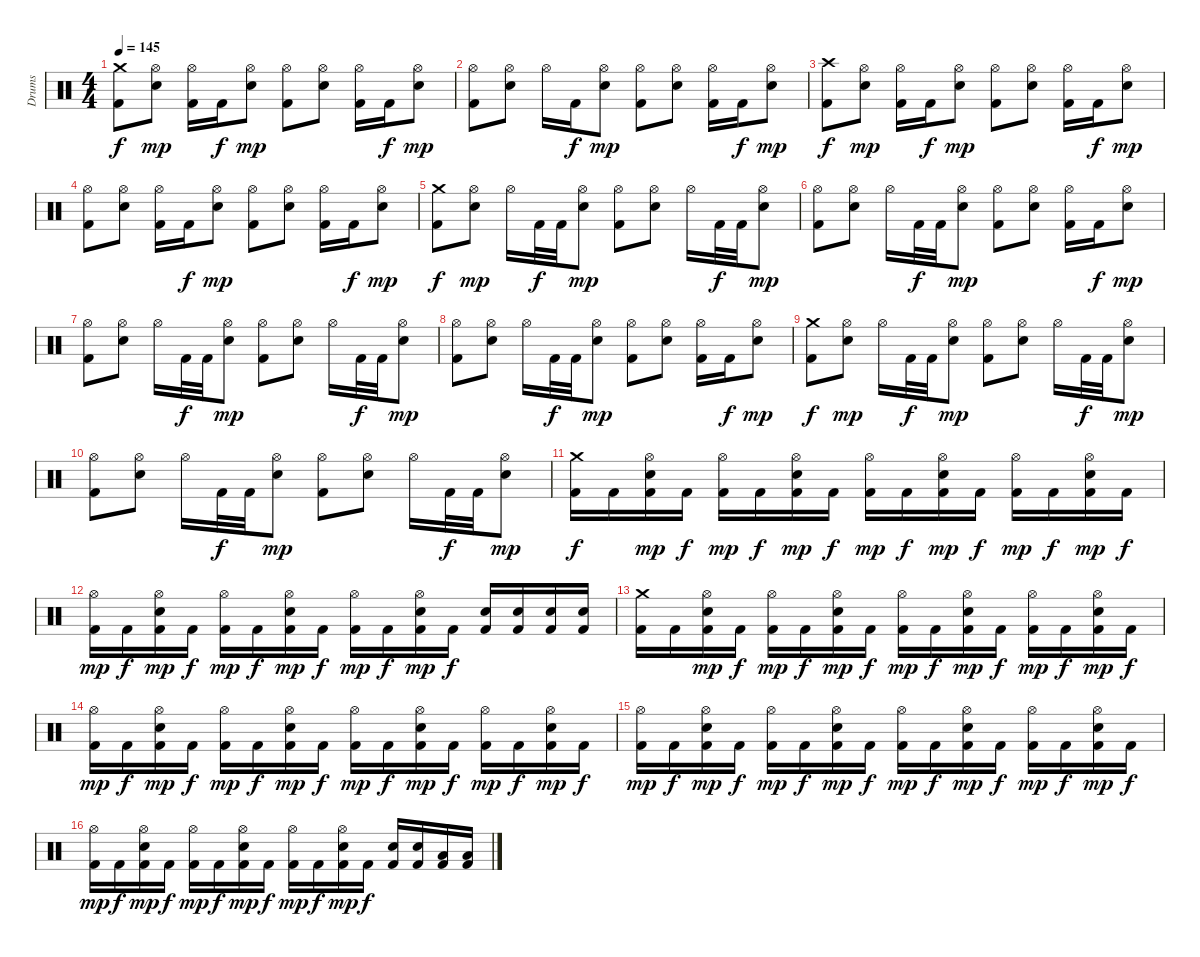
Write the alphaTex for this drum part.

\track ("Drums" "Drums") {instrument percussion}
\staff {score}
\articulation defaults
\ts (4 4)
\tempo 145
\clef neutral
\ks c
("Crash medium (hit)" "Kick (hit) 2").8{dy f} ("Hi-Hat (open)" "Electric Snare (hit)").8{dy mp} ("Hi-Hat (open)" "Kick (hit) 2").16 "Kick (hit) 2".16{dy f} ("Hi-Hat (open)" "Electric Snare (hit)").8{dy mp} ("Hi-Hat (open)" "Kick (hit) 2").8 ("Hi-Hat (open)" "Electric Snare (hit)").8 ("Hi-Hat (open)" "Kick (hit) 2").16 "Kick (hit) 2".16{dy f} ("Hi-Hat (open)" "Electric Snare (hit)").8{dy mp} |
("Hi-Hat (open)" "Kick (hit) 2").8 ("Hi-Hat (open)" "Electric Snare (hit)").8 "Hi-Hat (open)".16 "Kick (hit) 2".16{dy f} ("Hi-Hat (open)" "Electric Snare (hit)").8{dy mp} ("Hi-Hat (open)" "Kick (hit) 2").8 ("Hi-Hat (open)" "Electric Snare (hit)").8 ("Hi-Hat (open)" "Kick (hit) 2").16 "Kick (hit) 2".16{dy f} ("Hi-Hat (open)" "Electric Snare (hit)").8{dy mp} |
("Crash high (hit)" "Kick (hit) 2").8{dy f} ("Hi-Hat (open)" "Electric Snare (hit)").8{dy mp} ("Hi-Hat (open)" "Kick (hit) 2").16 "Kick (hit) 2".16{dy f} ("Hi-Hat (open)" "Electric Snare (hit)").8{dy mp} ("Hi-Hat (open)" "Kick (hit) 2").8 ("Hi-Hat (open)" "Electric Snare (hit)").8 ("Hi-Hat (open)" "Kick (hit) 2").16 "Kick (hit) 2".16{dy f} ("Hi-Hat (open)" "Electric Snare (hit)").8{dy mp} |
("Hi-Hat (open)" "Kick (hit) 2").8 ("Hi-Hat (open)" "Electric Snare (hit)").8 ("Hi-Hat (open)" "Kick (hit) 2").16 "Kick (hit) 2".16{dy f} ("Hi-Hat (open)" "Electric Snare (hit)").8{dy mp} ("Hi-Hat (open)" "Kick (hit) 2").8 ("Hi-Hat (open)" "Electric Snare (hit)").8 ("Hi-Hat (open)" "Kick (hit) 2").16 "Kick (hit) 2".16{dy f} ("Hi-Hat (open)" "Electric Snare (hit)").8{dy mp} |
("Crash medium (hit)" "Kick (hit) 2").8{dy f} ("Hi-Hat (open)" "Electric Snare (hit)").8{dy mp} "Hi-Hat (open)".16 "Kick (hit) 2".32{dy f} "Kick (hit) 2".32 ("Hi-Hat (open)" "Electric Snare (hit)").8{dy mp} ("Hi-Hat (open)" "Kick (hit) 2").8 ("Hi-Hat (open)" "Electric Snare (hit)").8 "Hi-Hat (open)".16 "Kick (hit) 2".32{dy f} "Kick (hit) 2".32 ("Hi-Hat (open)" "Electric Snare (hit)").8{dy mp} |
("Hi-Hat (open)" "Kick (hit) 2").8 ("Hi-Hat (open)" "Electric Snare (hit)").8 "Hi-Hat (open)".16 "Kick (hit) 2".32{dy f} "Kick (hit) 2".32 ("Hi-Hat (open)" "Electric Snare (hit)").8{dy mp} ("Hi-Hat (open)" "Kick (hit) 2").8 ("Hi-Hat (open)" "Electric Snare (hit)").8 ("Hi-Hat (open)" "Kick (hit) 2").16 "Kick (hit) 2".16{dy f} ("Hi-Hat (open)" "Electric Snare (hit)").8{dy mp} |
("Hi-Hat (open)" "Kick (hit) 2").8 ("Hi-Hat (open)" "Electric Snare (hit)").8 "Hi-Hat (open)".16 "Kick (hit) 2".32{dy f} "Kick (hit) 2".32 ("Hi-Hat (open)" "Electric Snare (hit)").8{dy mp} ("Hi-Hat (open)" "Kick (hit) 2").8 ("Hi-Hat (open)" "Electric Snare (hit)").8 "Hi-Hat (open)".16 "Kick (hit) 2".32{dy f} "Kick (hit) 2".32 ("Hi-Hat (open)" "Electric Snare (hit)").8{dy mp} |
("Hi-Hat (open)" "Kick (hit) 2").8 ("Hi-Hat (open)" "Electric Snare (hit)").8 "Hi-Hat (open)".16 "Kick (hit) 2".32{dy f} "Kick (hit) 2".32 ("Hi-Hat (open)" "Electric Snare (hit)").8{dy mp} ("Hi-Hat (open)" "Kick (hit) 2").8 ("Hi-Hat (open)" "Electric Snare (hit)").8 ("Hi-Hat (open)" "Kick (hit) 2").16 "Kick (hit) 2".16{dy f} ("Hi-Hat (open)" "Electric Snare (hit)").8{dy mp} |
("Crash medium (hit)" "Kick (hit) 2").8{dy f} ("Hi-Hat (open)" "Electric Snare (hit)").8{dy mp} "Hi-Hat (open)".16 "Kick (hit) 2".32{dy f} "Kick (hit) 2".32 ("Hi-Hat (open)" "Electric Snare (hit)").8{dy mp} ("Hi-Hat (open)" "Kick (hit) 2").8 ("Hi-Hat (open)" "Electric Snare (hit)").8 "Hi-Hat (open)".16 "Kick (hit) 2".32{dy f} "Kick (hit) 2".32 ("Hi-Hat (open)" "Electric Snare (hit)").8{dy mp} |
("Hi-Hat (open)" "Kick (hit) 2").8 ("Hi-Hat (open)" "Electric Snare (hit)").8 "Hi-Hat (open)".16 "Kick (hit) 2".32{dy f} "Kick (hit) 2".32 ("Hi-Hat (open)" "Electric Snare (hit)").8{dy mp} ("Hi-Hat (open)" "Kick (hit) 2").8 ("Hi-Hat (open)" "Electric Snare (hit)").8 "Hi-Hat (open)".16 "Kick (hit) 2".32{dy f} "Kick (hit) 2".32 ("Hi-Hat (open)" "Electric Snare (hit)").8{dy mp} |
("Crash medium (hit)" "Kick (hit) 2").16{dy f} "Kick (hit) 2".16 ("Hi-Hat (open)" "Kick (hit) 2" "Electric Snare (hit)").16{dy mp} "Kick (hit) 2".16{dy f} ("Hi-Hat (open)" "Kick (hit) 2").16{dy mp} "Kick (hit) 2".16{dy f} ("Hi-Hat (open)" "Kick (hit) 2" "Electric Snare (hit)").16{dy mp} "Kick (hit) 2".16{dy f} ("Hi-Hat (open)" "Kick (hit) 2").16{dy mp} "Kick (hit) 2".16{dy f} ("Hi-Hat (open)" "Kick (hit) 2" "Electric Snare (hit)").16{dy mp} "Kick (hit) 2".16{dy f} ("Hi-Hat (open)" "Kick (hit) 2").16{dy mp} "Kick (hit) 2".16{dy f} ("Hi-Hat (open)" "Kick (hit) 2" "Electric Snare (hit)").16{dy mp} "Kick (hit) 2".16{dy f} |
("Hi-Hat (open)" "Kick (hit) 2").16{dy mp} "Kick (hit) 2".16{dy f} ("Hi-Hat (open)" "Kick (hit) 2" "Electric Snare (hit)").16{dy mp} "Kick (hit) 2".16{dy f} ("Hi-Hat (open)" "Kick (hit) 2").16{dy mp} "Kick (hit) 2".16{dy f} ("Hi-Hat (open)" "Kick (hit) 2" "Electric Snare (hit)").16{dy mp} "Kick (hit) 2".16{dy f} ("Hi-Hat (open)" "Kick (hit) 2").16{dy mp} "Kick (hit) 2".16{dy f} ("Hi-Hat (open)" "Kick (hit) 2" "Electric Snare (hit)").16{dy mp} "Kick (hit) 2".16{dy f} ("Kick (hit) 2" "Electric Snare (hit)").16 ("Kick (hit) 2" "Electric Snare (hit)").16 ("Kick (hit) 2" "Electric Snare (hit)").16 ("Kick (hit) 2" "Electric Snare (hit)").16 |
("Crash medium (hit)" "Kick (hit) 2").16 "Kick (hit) 2".16 ("Hi-Hat (open)" "Kick (hit) 2" "Electric Snare (hit)").16{dy mp} "Kick (hit) 2".16{dy f} ("Hi-Hat (open)" "Kick (hit) 2").16{dy mp} "Kick (hit) 2".16{dy f} ("Hi-Hat (open)" "Kick (hit) 2" "Electric Snare (hit)").16{dy mp} "Kick (hit) 2".16{dy f} ("Hi-Hat (open)" "Kick (hit) 2").16{dy mp} "Kick (hit) 2".16{dy f} ("Hi-Hat (open)" "Kick (hit) 2" "Electric Snare (hit)").16{dy mp} "Kick (hit) 2".16{dy f} ("Hi-Hat (open)" "Kick (hit) 2").16{dy mp} "Kick (hit) 2".16{dy f} ("Hi-Hat (open)" "Kick (hit) 2" "Electric Snare (hit)").16{dy mp} "Kick (hit) 2".16{dy f} |
("Hi-Hat (open)" "Kick (hit) 2").16{dy mp} "Kick (hit) 2".16{dy f} ("Hi-Hat (open)" "Kick (hit) 2" "Electric Snare (hit)").16{dy mp} "Kick (hit) 2".16{dy f} ("Hi-Hat (open)" "Kick (hit) 2").16{dy mp} "Kick (hit) 2".16{dy f} ("Hi-Hat (open)" "Kick (hit) 2" "Electric Snare (hit)").16{dy mp} "Kick (hit) 2".16{dy f} ("Hi-Hat (open)" "Kick (hit) 2").16{dy mp} "Kick (hit) 2".16{dy f} ("Hi-Hat (open)" "Kick (hit) 2" "Electric Snare (hit)").16{dy mp} "Kick (hit) 2".16{dy f} ("Hi-Hat (open)" "Kick (hit) 2").16{dy mp} "Kick (hit) 2".16{dy f} ("Hi-Hat (open)" "Kick (hit) 2" "Electric Snare (hit)").16{dy mp} "Kick (hit) 2".16{dy f} |
("Hi-Hat (open)" "Kick (hit) 2").16{dy mp} "Kick (hit) 2".16{dy f} ("Hi-Hat (open)" "Kick (hit) 2" "Electric Snare (hit)").16{dy mp} "Kick (hit) 2".16{dy f} ("Hi-Hat (open)" "Kick (hit) 2").16{dy mp} "Kick (hit) 2".16{dy f} ("Hi-Hat (open)" "Kick (hit) 2" "Electric Snare (hit)").16{dy mp} "Kick (hit) 2".16{dy f} ("Hi-Hat (open)" "Kick (hit) 2").16{dy mp} "Kick (hit) 2".16{dy f} ("Hi-Hat (open)" "Kick (hit) 2" "Electric Snare (hit)").16{dy mp} "Kick (hit) 2".16{dy f} ("Hi-Hat (open)" "Kick (hit) 2").16{dy mp} "Kick (hit) 2".16{dy f} ("Hi-Hat (open)" "Kick (hit) 2" "Electric Snare (hit)").16{dy mp} "Kick (hit) 2".16{dy f} |
("Hi-Hat (open)" "Kick (hit) 2").16{dy mp} "Kick (hit) 2".16{dy f} ("Hi-Hat (open)" "Kick (hit) 2" "Electric Snare (hit)").16{dy mp} "Kick (hit) 2".16{dy f} ("Hi-Hat (open)" "Kick (hit) 2").16{dy mp} "Kick (hit) 2".16{dy f} ("Hi-Hat (open)" "Kick (hit) 2" "Electric Snare (hit)").16{dy mp} "Kick (hit) 2".16{dy f} ("Hi-Hat (open)" "Kick (hit) 2").16{dy mp} "Kick (hit) 2".16{dy f} ("Hi-Hat (open)" "Kick (hit) 2" "Electric Snare (hit)").16{dy mp} "Kick (hit) 2".16{dy f} ("Electric Snare (hit)" "Kick (hit) 2").16 ("Electric Snare (hit)" "Kick (hit) 2").16 ("Low Tom (hit)" "Kick (hit) 2").16 ("Low Tom (hit)" "Kick (hit) 2").16
